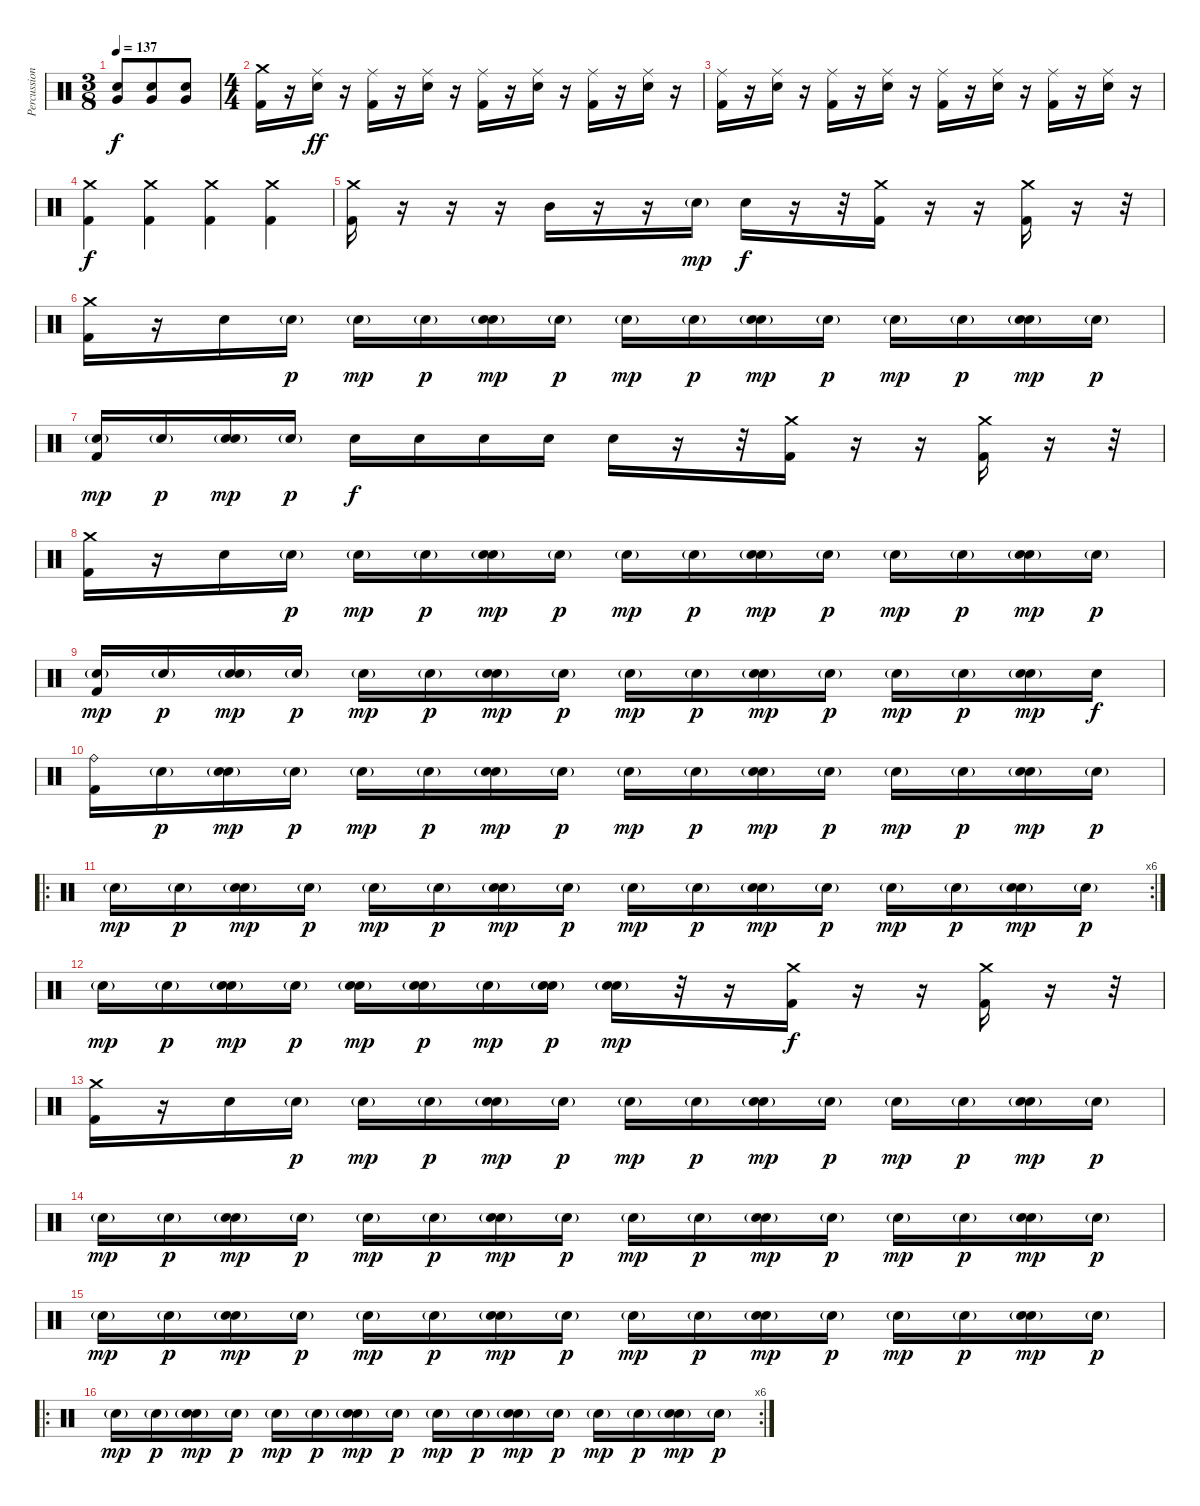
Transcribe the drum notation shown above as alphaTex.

\track ("Percussion" "Percussion") {instrument percussion}
\staff {score}
\articulation defaults
\ts (3 8)
\tempo 137
\clef neutral
\ks c
("Very Low Tom (hit)" "Electric Snare (hit)").8{dy f} ("Very Low Tom (hit)" "Electric Snare (hit)").8 ("Very Low Tom (hit)" "Electric Snare (hit)").8 |
\ts (4 4)
("Crash medium (hit)" "Kick (hit) 2").16 r.16 ("Ride (middle)" "Electric Snare (hit)").16{dy ff} r.16 ("Ride (middle)" "Kick (hit) 2").16 r.16 ("Ride (middle)" "Electric Snare (hit)").16 r.16 ("Ride (middle)" "Kick (hit) 2").16 r.16 ("Ride (middle)" "Electric Snare (hit)").16 r.16 ("Ride (middle)" "Kick (hit) 2").16 r.16 ("Ride (middle)" "Electric Snare (hit)").16 r.16 |
("Ride (middle)" "Kick (hit) 2").16 r.16 ("Ride (middle)" "Electric Snare (hit)").16 r.16 ("Ride (middle)" "Kick (hit) 2").16 r.16 ("Ride (middle)" "Electric Snare (hit)").16 r.16 ("Ride (middle)" "Kick (hit) 2").16 r.16 ("Ride (middle)" "Electric Snare (hit)").16 r.16 ("Ride (middle)" "Kick (hit) 2").16 r.16 ("Ride (middle)" "Electric Snare (hit)").16 r.16 |
("Crash medium (hit)" "Kick (hit) 2").4{dy f} ("Crash medium (hit)" "Kick (hit) 2").4 ("Crash medium (hit)" "Kick (hit) 2").4 ("Crash medium (hit)" "Kick (hit) 2").4 |
("Crash medium (hit)" "Kick (hit) 2").16 r.16 r.16 r.16 "Mid Tom (hit)".16 r.16 r.16 "Electric Snare (hit)"{g}.16{dy mp} "Electric Snare (hit)".16{dy f} r.16 r.32 ("Crash medium (hit)" "Kick (hit) 2").16 r.16 r.16 ("Crash medium (hit)" "Kick (hit) 2").16 r.16 r.32 |
("Crash medium (hit)" "Kick (hit) 2").16 r.16 "Electric Snare (hit)".16 "Electric Snare (hit)"{g}.16{dy p} "Electric Snare (hit)"{g}.16{dy mp} "Electric Snare (hit)"{g}.16{dy p} ("Electric Snare (hit)"{g} "Electric Snare (hit)").16{dy mp} "Electric Snare (hit)"{g}.16{dy p} "Electric Snare (hit)"{g}.16{dy mp} "Electric Snare (hit)"{g}.16{dy p} ("Electric Snare (hit)"{g} "Electric Snare (hit)").16{dy mp} "Electric Snare (hit)"{g}.16{dy p} "Electric Snare (hit)"{g}.16{dy mp} "Electric Snare (hit)"{g}.16{dy p} ("Electric Snare (hit)"{g} "Electric Snare (hit)").16{dy mp} "Electric Snare (hit)"{g}.16{dy p} |
("Electric Snare (hit)"{g} "Kick (hit) 2").16{dy mp} "Electric Snare (hit)"{g}.16{dy p} ("Electric Snare (hit)"{g} "Electric Snare (hit)").16{dy mp} "Electric Snare (hit)"{g}.16{dy p} "Electric Snare (hit)".16{dy f} "Electric Snare (hit)".16 "Electric Snare (hit)".16 "Electric Snare (hit)".16 "Electric Snare (hit)".16 r.16 r.32 ("Crash medium (hit)" "Kick (hit) 2").16 r.16 r.16 ("Crash medium (hit)" "Kick (hit) 2").16 r.16 r.32 |
("Crash medium (hit)" "Kick (hit) 2").16 r.16 "Electric Snare (hit)".16 "Electric Snare (hit)"{g}.16{dy p} "Electric Snare (hit)"{g}.16{dy mp} "Electric Snare (hit)"{g}.16{dy p} ("Electric Snare (hit)"{g} "Electric Snare (hit)").16{dy mp} "Electric Snare (hit)"{g}.16{dy p} "Electric Snare (hit)"{g}.16{dy mp} "Electric Snare (hit)"{g}.16{dy p} ("Electric Snare (hit)"{g} "Electric Snare (hit)").16{dy mp} "Electric Snare (hit)"{g}.16{dy p} "Electric Snare (hit)"{g}.16{dy mp} "Electric Snare (hit)"{g}.16{dy p} ("Electric Snare (hit)"{g} "Electric Snare (hit)").16{dy mp} "Electric Snare (hit)"{g}.16{dy p} |
("Electric Snare (hit)"{g} "Kick (hit) 2").16{dy mp} "Electric Snare (hit)"{g}.16{dy p} ("Electric Snare (hit)"{g} "Electric Snare (hit)").16{dy mp} "Electric Snare (hit)"{g}.16{dy p} "Electric Snare (hit)"{g}.16{dy mp} "Electric Snare (hit)"{g}.16{dy p} ("Electric Snare (hit)"{g} "Electric Snare (hit)").16{dy mp} "Electric Snare (hit)"{g}.16{dy p} "Electric Snare (hit)"{g}.16{dy mp} "Electric Snare (hit)"{g}.16{dy p} ("Electric Snare (hit)"{g} "Electric Snare (hit)").16{dy mp} "Electric Snare (hit)"{g}.16{dy p} "Electric Snare (hit)"{g}.16{dy mp} "Electric Snare (hit)"{g}.16{dy p} ("Electric Snare (hit)"{g} "Electric Snare (hit)").16{dy mp} "Electric Snare (hit)".16{dy f} |
("Ride (bell)" "Kick (hit) 2").16 "Electric Snare (hit)"{g}.16{dy p} ("Electric Snare (hit)"{g} "Electric Snare (hit)").16{dy mp} "Electric Snare (hit)"{g}.16{dy p} "Electric Snare (hit)"{g}.16{dy mp} "Electric Snare (hit)"{g}.16{dy p} ("Electric Snare (hit)"{g} "Electric Snare (hit)").16{dy mp} "Electric Snare (hit)"{g}.16{dy p} "Electric Snare (hit)"{g}.16{dy mp} "Electric Snare (hit)"{g}.16{dy p} ("Electric Snare (hit)"{g} "Electric Snare (hit)").16{dy mp} "Electric Snare (hit)"{g}.16{dy p} "Electric Snare (hit)"{g}.16{dy mp} "Electric Snare (hit)"{g}.16{dy p} ("Electric Snare (hit)"{g} "Electric Snare (hit)").16{dy mp} "Electric Snare (hit)"{g}.16{dy p} |
\ro
\rc 6 "Electric Snare (hit)"{g}.16{dy mp} "Electric Snare (hit)"{g}.16{dy p}
("Electric Snare (hit)"{g} "Electric Snare (hit)").16{dy mp} "Electric Snare (hit)"{g}.16{dy p} "Electric Snare (hit)"{g}.16{dy mp} "Electric Snare (hit)"{g}.16{dy p} ("Electric Snare (hit)"{g} "Electric Snare (hit)").16{dy mp} "Electric Snare (hit)"{g}.16{dy p} "Electric Snare (hit)"{g}.16{dy mp} "Electric Snare (hit)"{g}.16{dy p} ("Electric Snare (hit)"{g} "Electric Snare (hit)").16{dy mp} "Electric Snare (hit)"{g}.16{dy p} "Electric Snare (hit)"{g}.16{dy mp} "Electric Snare (hit)"{g}.16{dy p} ("Electric Snare (hit)"{g} "Electric Snare (hit)").16{dy mp} "Electric Snare (hit)"{g}.16{dy p} |
"Electric Snare (hit)"{g}.16{dy mp} "Electric Snare (hit)"{g}.16{dy p} ("Electric Snare (hit)"{g} "Electric Snare (hit)").16{dy mp} "Electric Snare (hit)"{g}.16{dy p} ("Electric Snare (hit)"{g} "Electric Snare (hit)").16{dy mp} ("Electric Snare (hit)"{g} "Electric Snare (hit)").16{dy p} "Electric Snare (hit)"{g}.16{dy mp} ("Electric Snare (hit)"{g} "Electric Snare (hit)").16{dy p} ("Electric Snare (hit)"{g} "Electric Snare (hit)").16{dy mp} r.32 r.16 ("Crash medium (hit)" "Kick (hit) 2").16{dy f} r.16 r.16 ("Crash medium (hit)" "Kick (hit) 2").16 r.16 r.32 |
("Crash medium (hit)" "Kick (hit) 2").16 r.16 "Electric Snare (hit)".16 "Electric Snare (hit)"{g}.16{dy p} "Electric Snare (hit)"{g}.16{dy mp} "Electric Snare (hit)"{g}.16{dy p} ("Electric Snare (hit)"{g} "Electric Snare (hit)").16{dy mp} "Electric Snare (hit)"{g}.16{dy p} "Electric Snare (hit)"{g}.16{dy mp} "Electric Snare (hit)"{g}.16{dy p} ("Electric Snare (hit)"{g} "Electric Snare (hit)").16{dy mp} "Electric Snare (hit)"{g}.16{dy p} "Electric Snare (hit)"{g}.16{dy mp} "Electric Snare (hit)"{g}.16{dy p} ("Electric Snare (hit)"{g} "Electric Snare (hit)").16{dy mp} "Electric Snare (hit)"{g}.16{dy p} |
"Electric Snare (hit)"{g}.16{dy mp} "Electric Snare (hit)"{g}.16{dy p} ("Electric Snare (hit)"{g} "Electric Snare (hit)").16{dy mp} "Electric Snare (hit)"{g}.16{dy p} "Electric Snare (hit)"{g}.16{dy mp} "Electric Snare (hit)"{g}.16{dy p} ("Electric Snare (hit)"{g} "Electric Snare (hit)").16{dy mp} "Electric Snare (hit)"{g}.16{dy p} "Electric Snare (hit)"{g}.16{dy mp} "Electric Snare (hit)"{g}.16{dy p} ("Electric Snare (hit)"{g} "Electric Snare (hit)").16{dy mp} "Electric Snare (hit)"{g}.16{dy p} "Electric Snare (hit)"{g}.16{dy mp} "Electric Snare (hit)"{g}.16{dy p} ("Electric Snare (hit)"{g} "Electric Snare (hit)").16{dy mp} "Electric Snare (hit)"{g}.16{dy p} |
"Electric Snare (hit)"{g}.16{dy mp} "Electric Snare (hit)"{g}.16{dy p} ("Electric Snare (hit)"{g} "Electric Snare (hit)").16{dy mp} "Electric Snare (hit)"{g}.16{dy p} "Electric Snare (hit)"{g}.16{dy mp} "Electric Snare (hit)"{g}.16{dy p} ("Electric Snare (hit)"{g} "Electric Snare (hit)").16{dy mp} "Electric Snare (hit)"{g}.16{dy p} "Electric Snare (hit)"{g}.16{dy mp} "Electric Snare (hit)"{g}.16{dy p} ("Electric Snare (hit)"{g} "Electric Snare (hit)").16{dy mp} "Electric Snare (hit)"{g}.16{dy p} "Electric Snare (hit)"{g}.16{dy mp} "Electric Snare (hit)"{g}.16{dy p} ("Electric Snare (hit)"{g} "Electric Snare (hit)").16{dy mp} "Electric Snare (hit)"{g}.16{dy p} |
\ro
\rc 6 "Electric Snare (hit)"{g}.16{dy mp} "Electric Snare (hit)"{g}.16{dy p}
("Electric Snare (hit)"{g} "Electric Snare (hit)").16{dy mp} "Electric Snare (hit)"{g}.16{dy p} "Electric Snare (hit)"{g}.16{dy mp} "Electric Snare (hit)"{g}.16{dy p} ("Electric Snare (hit)"{g} "Electric Snare (hit)").16{dy mp} "Electric Snare (hit)"{g}.16{dy p} "Electric Snare (hit)"{g}.16{dy mp} "Electric Snare (hit)"{g}.16{dy p} ("Electric Snare (hit)"{g} "Electric Snare (hit)").16{dy mp} "Electric Snare (hit)"{g}.16{dy p} "Electric Snare (hit)"{g}.16{dy mp} "Electric Snare (hit)"{g}.16{dy p} ("Electric Snare (hit)"{g} "Electric Snare (hit)").16{dy mp} "Electric Snare (hit)"{g}.16{dy p}
